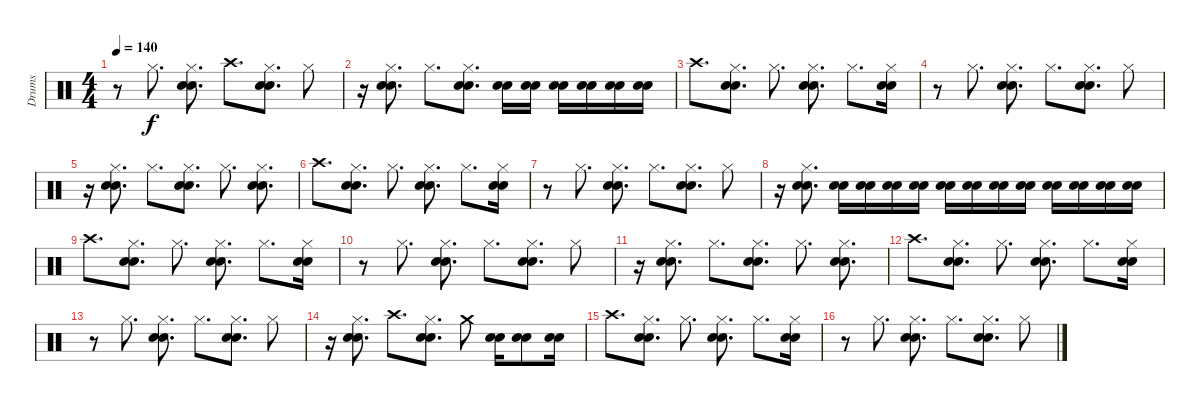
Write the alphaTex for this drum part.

\track ("Drums" "Drums") {instrument percussion}
\staff {score}
\articulation defaults
\ts (4 4)
\tempo 140
\clef neutral
\ks c
r.8{dy f} "Hi-Hat (closed)".8{d} ("Hi-Hat (closed)" "Electric Snare (hit)" "Snare (hit) 2").8{d} "Crash high (hit)".8{d} ("Hi-Hat (closed)" "Electric Snare (hit)" "Snare (hit) 2").8{d} "Hi-Hat (closed)".8 |
r.16 ("Hi-Hat (closed)" "Electric Snare (hit)" "Snare (hit) 2").8{d} "Hi-Hat (closed)".8{d} ("Hi-Hat (closed)" "Electric Snare (hit)" "Snare (hit) 2").8{d} ("Electric Snare (hit)" "Snare (hit) 2").16 ("Electric Snare (hit)" "Snare (hit) 2").16 ("Electric Snare (hit)" "Snare (hit) 2").16 ("Electric Snare (hit)" "Snare (hit) 2").16 ("Electric Snare (hit)" "Snare (hit) 2").16 ("Electric Snare (hit)" "Snare (hit) 2").16 |
"Crash high (hit)".8{d} ("Hi-Hat (closed)" "Electric Snare (hit)" "Snare (hit) 2").8{d} "Hi-Hat (closed)".8{d} ("Hi-Hat (closed)" "Electric Snare (hit)" "Snare (hit) 2").8{d} "Hi-Hat (closed)".8{d} ("Hi-Hat (closed)" "Electric Snare (hit)" "Snare (hit) 2").16 |
r.8 "Hi-Hat (closed)".8{d} ("Hi-Hat (closed)" "Electric Snare (hit)" "Snare (hit) 2").8{d} "Hi-Hat (closed)".8{d} ("Hi-Hat (closed)" "Electric Snare (hit)" "Snare (hit) 2").8{d} "Hi-Hat (closed)".8 |
r.16 ("Hi-Hat (closed)" "Electric Snare (hit)" "Snare (hit) 2").8{d} "Hi-Hat (closed)".8{d} ("Hi-Hat (closed)" "Electric Snare (hit)" "Snare (hit) 2").8{d} "Hi-Hat (closed)".8{d} ("Hi-Hat (closed)" "Electric Snare (hit)" "Snare (hit) 2").8{d} |
"Crash high (hit)".8{d} ("Hi-Hat (closed)" "Electric Snare (hit)" "Snare (hit) 2").8{d} "Hi-Hat (closed)".8{d} ("Hi-Hat (closed)" "Electric Snare (hit)" "Snare (hit) 2").8{d} "Hi-Hat (closed)".8{d} ("Hi-Hat (closed)" "Electric Snare (hit)" "Snare (hit) 2").16 |
r.8 "Hi-Hat (closed)".8{d} ("Hi-Hat (closed)" "Electric Snare (hit)" "Snare (hit) 2").8{d} "Hi-Hat (closed)".8{d} ("Hi-Hat (closed)" "Electric Snare (hit)" "Snare (hit) 2").8{d} "Hi-Hat (closed)".8 |
r.16 ("Hi-Hat (closed)" "Electric Snare (hit)" "Snare (hit) 2").8{d} ("Electric Snare (hit)" "Snare (hit) 2").16 ("Electric Snare (hit)" "Snare (hit) 2").16 ("Electric Snare (hit)" "Snare (hit) 2").16 ("Electric Snare (hit)" "Snare (hit) 2").16 ("Electric Snare (hit)" "Snare (hit) 2").16 ("Electric Snare (hit)" "Snare (hit) 2").16 ("Electric Snare (hit)" "Snare (hit) 2").16 ("Electric Snare (hit)" "Snare (hit) 2").16 ("Electric Snare (hit)" "Snare (hit) 2").16 ("Electric Snare (hit)" "Snare (hit) 2").16 ("Electric Snare (hit)" "Snare (hit) 2").16 ("Electric Snare (hit)" "Snare (hit) 2").16 |
"Crash high (hit)".8{d} ("Hi-Hat (closed)" "Electric Snare (hit)" "Snare (hit) 2").8{d} "Hi-Hat (closed)".8{d} ("Hi-Hat (closed)" "Electric Snare (hit)" "Snare (hit) 2").8{d} "Hi-Hat (closed)".8{d} ("Hi-Hat (closed)" "Electric Snare (hit)" "Snare (hit) 2").16 |
r.8 "Hi-Hat (closed)".8{d} ("Hi-Hat (closed)" "Electric Snare (hit)" "Snare (hit) 2").8{d} "Hi-Hat (closed)".8{d} ("Hi-Hat (closed)" "Electric Snare (hit)" "Snare (hit) 2").8{d} "Hi-Hat (closed)".8 |
r.16 ("Hi-Hat (closed)" "Electric Snare (hit)" "Snare (hit) 2").8{d} "Hi-Hat (closed)".8{d} ("Hi-Hat (closed)" "Electric Snare (hit)" "Snare (hit) 2").8{d} "Hi-Hat (closed)".8{d} ("Hi-Hat (closed)" "Electric Snare (hit)" "Snare (hit) 2").8{d} |
"Crash high (hit)".8{d} ("Hi-Hat (closed)" "Electric Snare (hit)" "Snare (hit) 2").8{d} "Hi-Hat (closed)".8{d} ("Hi-Hat (closed)" "Electric Snare (hit)" "Snare (hit) 2").8{d} "Hi-Hat (closed)".8{d} ("Hi-Hat (closed)" "Electric Snare (hit)" "Snare (hit) 2").16 |
r.8 "Hi-Hat (closed)".8{d} ("Hi-Hat (closed)" "Electric Snare (hit)" "Snare (hit) 2").8{d} "Hi-Hat (closed)".8{d} ("Hi-Hat (closed)" "Electric Snare (hit)" "Snare (hit) 2").8{d} "Hi-Hat (closed)".8 |
r.16 ("Hi-Hat (closed)" "Electric Snare (hit)" "Snare (hit) 2").8{d} "Crash high (hit)".8{d} ("Hi-Hat (closed)" "Electric Snare (hit)" "Snare (hit) 2").8{d} "Crash medium (hit)".8 ("Electric Snare (hit)" "Snare (hit) 2").16 ("Electric Snare (hit)" "Snare (hit) 2").8 ("Electric Snare (hit)" "Snare (hit) 2").16 |
"Crash high (hit)".8{d} ("Hi-Hat (closed)" "Electric Snare (hit)" "Snare (hit) 2").8{d} "Hi-Hat (closed)".8{d} ("Hi-Hat (closed)" "Electric Snare (hit)" "Snare (hit) 2").8{d} "Hi-Hat (closed)".8{d} ("Hi-Hat (closed)" "Electric Snare (hit)" "Snare (hit) 2").16 |
r.8 "Hi-Hat (closed)".8{d} ("Hi-Hat (closed)" "Electric Snare (hit)" "Snare (hit) 2").8{d} "Hi-Hat (closed)".8{d} ("Hi-Hat (closed)" "Electric Snare (hit)" "Snare (hit) 2").8{d} "Hi-Hat (closed)".8
